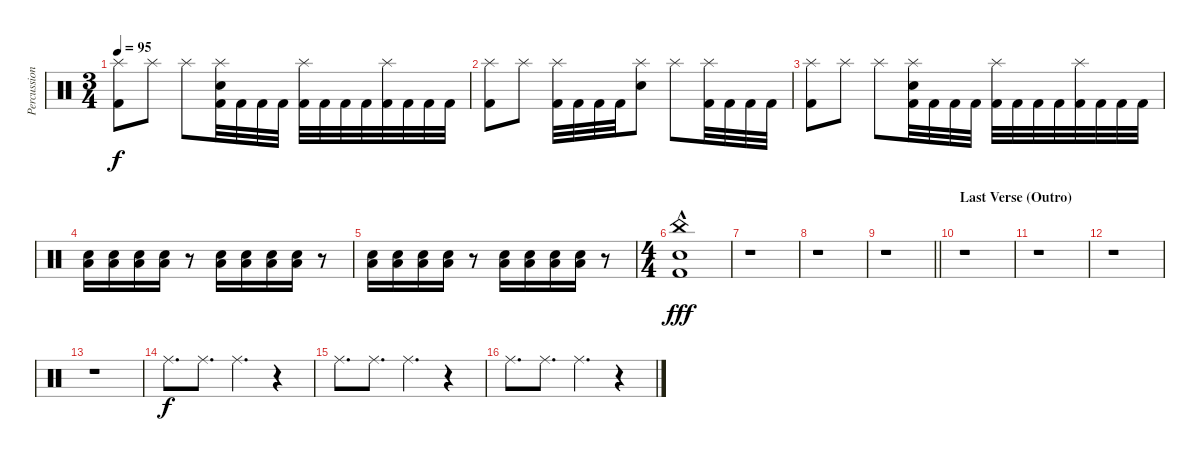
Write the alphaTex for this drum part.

\track ("Percussion Mike" "Percussion") {instrument percussion}
\staff {score}
\articulation defaults
\ts (3 4)
\tempo 95
\clef neutral
\ks c
("Splash (hit)" "Kick (hit) 2").8{dy f} "Splash (hit)".8 "Splash (hit)".8 ("Splash (hit)" "Snare (hit) 2" "Kick (hit) 2").32 "Kick (hit) 2".32 "Kick (hit) 2".32 "Kick (hit) 2".32 ("Splash (hit)" "Kick (hit) 2").32 "Kick (hit) 2".32 "Kick (hit) 2".32 "Kick (hit) 2".32 ("Splash (hit)" "Kick (hit) 2").32 "Kick (hit) 2".32 "Kick (hit) 2".32 "Kick (hit) 2".32 |
("Splash (hit)" "Kick (hit) 2").8 "Splash (hit)".8 ("Splash (hit)" "Kick (hit) 2").32 "Kick (hit) 2".32 "Kick (hit) 2".32 "Kick (hit) 2".32 ("Splash (hit)" "Snare (hit) 2").8 "Splash (hit)".8 ("Splash (hit)" "Kick (hit) 2").32 "Kick (hit) 2".32 "Kick (hit) 2".32 "Kick (hit) 2".32 |
("Splash (hit)" "Kick (hit) 2").8 "Splash (hit)".8 "Splash (hit)".8 ("Splash (hit)" "Snare (hit) 2" "Kick (hit) 2").32 "Kick (hit) 2".32 "Kick (hit) 2".32 "Kick (hit) 2".32 ("Splash (hit)" "Kick (hit) 2").32 "Kick (hit) 2".32 "Kick (hit) 2".32 "Kick (hit) 2".32 ("Splash (hit)" "Kick (hit) 2").32 "Kick (hit) 2".32 "Kick (hit) 2".32 "Kick (hit) 2".32 |
("Snare (hit) 2" "Low Floor Tom (hit)").16 ("Snare (hit) 2" "Low Floor Tom (hit)").16 ("Snare (hit) 2" "Low Floor Tom (hit)").16 ("Snare (hit) 2" "Low Floor Tom (hit)").16 r.8 ("Snare (hit) 2" "Low Floor Tom (hit)").16 ("Snare (hit) 2" "Low Floor Tom (hit)").16{beam merge} ("Snare (hit) 2" "Low Floor Tom (hit)").16 ("Snare (hit) 2" "Low Floor Tom (hit)").16 r.8 |
("Snare (hit) 2" "Low Floor Tom (hit)").16 ("Snare (hit) 2" "Low Floor Tom (hit)").16 ("Snare (hit) 2" "Low Floor Tom (hit)").16 ("Snare (hit) 2" "Low Floor Tom (hit)").16 r.8 ("Snare (hit) 2" "Low Floor Tom (hit)").16 ("Snare (hit) 2" "Low Floor Tom (hit)").16{beam merge} ("Snare (hit) 2" "Low Floor Tom (hit)").16 ("Snare (hit) 2" "Low Floor Tom (hit)").16 r.8 |
\ts (4 4)
("China (hit)"{hac} "Snare (hit) 2" "Kick (hit) 2").1{dy fff} |
r.1 |
r.1 |
\barLineRight lightlight
r.1 |
\section ("" "Last Verse (Outro)")
r.1 |
r.1 |
r.1 |
r.1 |
"Ride (middle)".8{d dy f} "Ride (middle)".8{d} "Ride (middle)".4{d} r.4 |
"Ride (middle)".8{d} "Ride (middle)".8{d} "Ride (middle)".4{d} r.4 |
"Ride (middle)".8{d} "Ride (middle)".8{d} "Ride (middle)".4{d} r.4
